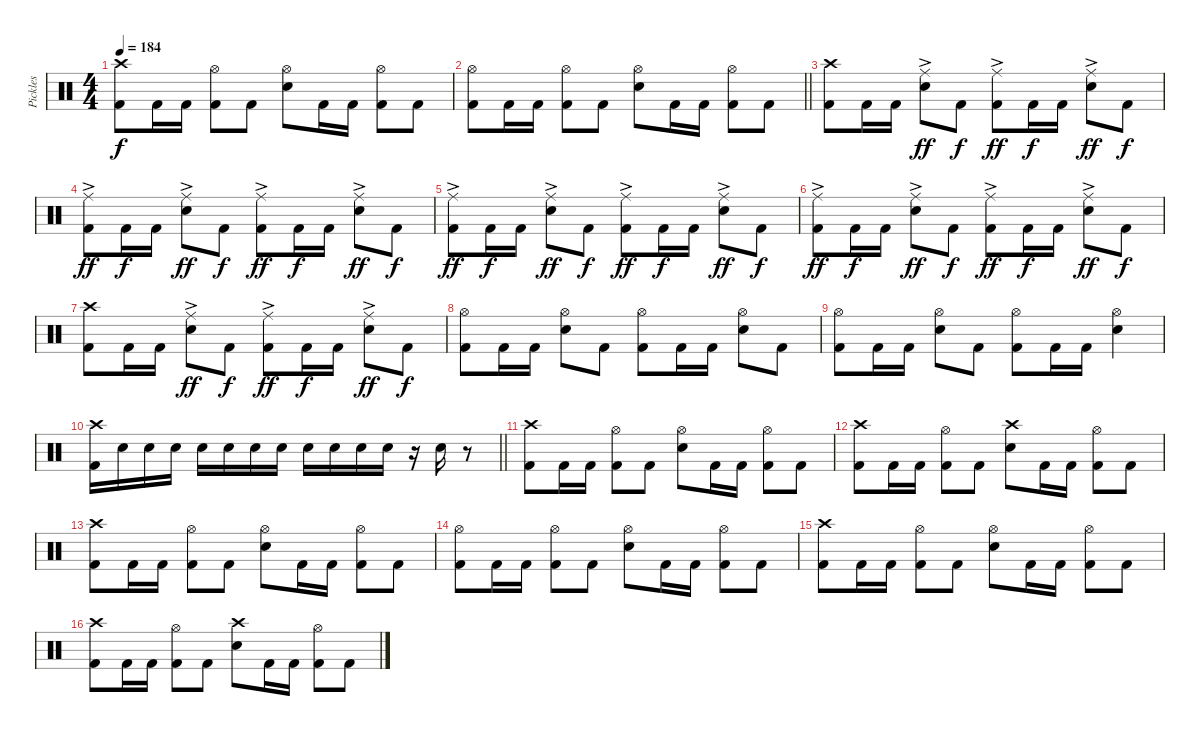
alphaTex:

\track ("Pickles" "Pickles") {instrument percussion}
\staff {score}
\articulation defaults
\ts (4 4)
\tempo 184
\clef neutral
\ks aminor
("Crash high (hit)" "Kick (hit) 2").8{dy f} "Kick (hit) 2".16 "Kick (hit) 2".16 ("Hi-Hat (open)" "Kick (hit) 2").8 "Kick (hit) 2".8 ("Hi-Hat (open)" "Snare (hit) 2").8 "Kick (hit) 2".16 "Kick (hit) 2".16 ("Hi-Hat (open)" "Kick (hit) 2").8 "Kick (hit) 2".8 |
\barLineRight lightlight
("Hi-Hat (open)" "Kick (hit) 2").8 "Kick (hit) 2".16 "Kick (hit) 2".16 ("Hi-Hat (open)" "Kick (hit) 2").8 "Kick (hit) 2".8 ("Hi-Hat (open)" "Snare (hit) 2").8 "Kick (hit) 2".16 "Kick (hit) 2".16 ("Hi-Hat (open)" "Kick (hit) 2").8 "Kick (hit) 2".8 |
("Crash high (hit)" "Kick (hit) 2").8 "Kick (hit) 2".16 "Kick (hit) 2".16 ("Ride (middle)"{ac} "Snare (hit) 2").8{dy ff} "Kick (hit) 2".8{dy f} ("Ride (middle)"{ac} "Kick (hit) 2").8{dy ff} "Kick (hit) 2".16{dy f} "Kick (hit) 2".16 ("Ride (middle)"{ac} "Snare (hit) 2").8{dy ff} "Kick (hit) 2".8{dy f} |
("Ride (middle)"{ac} "Kick (hit) 2").8{dy ff} "Kick (hit) 2".16{dy f} "Kick (hit) 2".16 ("Ride (middle)"{ac} "Snare (hit) 2").8{dy ff} "Kick (hit) 2".8{dy f} ("Ride (middle)"{ac} "Kick (hit) 2").8{dy ff} "Kick (hit) 2".16{dy f} "Kick (hit) 2".16 ("Ride (middle)"{ac} "Snare (hit) 2").8{dy ff} "Kick (hit) 2".8{dy f} |
("Ride (middle)"{ac} "Kick (hit) 2").8{dy ff} "Kick (hit) 2".16{dy f} "Kick (hit) 2".16 ("Ride (middle)"{ac} "Snare (hit) 2").8{dy ff} "Kick (hit) 2".8{dy f} ("Ride (middle)"{ac} "Kick (hit) 2").8{dy ff} "Kick (hit) 2".16{dy f} "Kick (hit) 2".16 ("Ride (middle)"{ac} "Snare (hit) 2").8{dy ff} "Kick (hit) 2".8{dy f} |
("Ride (middle)"{ac} "Kick (hit) 2").8{dy ff} "Kick (hit) 2".16{dy f} "Kick (hit) 2".16 ("Ride (middle)"{ac} "Snare (hit) 2").8{dy ff} "Kick (hit) 2".8{dy f} ("Ride (middle)"{ac} "Kick (hit) 2").8{dy ff} "Kick (hit) 2".16{dy f} "Kick (hit) 2".16 ("Ride (middle)"{ac} "Snare (hit) 2").8{dy ff} "Kick (hit) 2".8{dy f} |
("Crash high (hit)" "Kick (hit) 2").8 "Kick (hit) 2".16 "Kick (hit) 2".16 ("Ride (middle)"{ac} "Snare (hit) 2").8{dy ff} "Kick (hit) 2".8{dy f} ("Ride (middle)"{ac} "Kick (hit) 2").8{dy ff} "Kick (hit) 2".16{dy f} "Kick (hit) 2".16 ("Ride (middle)"{ac} "Snare (hit) 2").8{dy ff} "Kick (hit) 2".8{dy f} |
("Hi-Hat (open)" "Kick (hit) 2").8 "Kick (hit) 2".16 "Kick (hit) 2".16 ("Hi-Hat (open)" "Snare (hit) 2").8 "Kick (hit) 2".8 ("Hi-Hat (open)" "Kick (hit) 2").8 "Kick (hit) 2".16 "Kick (hit) 2".16 ("Hi-Hat (open)" "Snare (hit) 2").8 "Kick (hit) 2".8 |
("Hi-Hat (open)" "Kick (hit) 2").8 "Kick (hit) 2".16 "Kick (hit) 2".16 ("Hi-Hat (open)" "Snare (hit) 2").8 "Kick (hit) 2".8 ("Hi-Hat (open)" "Kick (hit) 2").8 "Kick (hit) 2".16 "Kick (hit) 2".16 ("Hi-Hat (open)" "Snare (hit) 2").4 |
\barLineRight lightlight
("Crash high (hit)" "Kick (hit) 2").16 "Snare (hit) 2".16 "Snare (hit) 2".16 "Snare (hit) 2".16 "Snare (hit) 2".16 "Snare (hit) 2".16 "Snare (hit) 2".16 "Snare (hit) 2".16 "Snare (hit) 2".16 "Snare (hit) 2".16 "Snare (hit) 2".16 "Snare (hit) 2".16 r.16 "Snare (hit) 2".16 r.8 |
("Crash high (hit)" "Kick (hit) 2").8 "Kick (hit) 2".16 "Kick (hit) 2".16 ("Hi-Hat (open)" "Kick (hit) 2").8 "Kick (hit) 2".8 ("Hi-Hat (open)" "Snare (hit) 2").8 "Kick (hit) 2".16 "Kick (hit) 2".16 ("Hi-Hat (open)" "Kick (hit) 2").8 "Kick (hit) 2".8 |
("Crash high (hit)" "Kick (hit) 2").8 "Kick (hit) 2".16 "Kick (hit) 2".16 ("Hi-Hat (open)" "Kick (hit) 2").8 "Kick (hit) 2".8 ("Crash high (hit)" "Snare (hit) 2").8 "Kick (hit) 2".16 "Kick (hit) 2".16 ("Hi-Hat (open)" "Kick (hit) 2").8 "Kick (hit) 2".8 |
("Crash high (hit)" "Kick (hit) 2").8 "Kick (hit) 2".16 "Kick (hit) 2".16 ("Hi-Hat (open)" "Kick (hit) 2").8 "Kick (hit) 2".8 ("Hi-Hat (open)" "Snare (hit) 2").8 "Kick (hit) 2".16 "Kick (hit) 2".16 ("Hi-Hat (open)" "Kick (hit) 2").8 "Kick (hit) 2".8 |
("Hi-Hat (open)" "Kick (hit) 2").8 "Kick (hit) 2".16 "Kick (hit) 2".16 ("Hi-Hat (open)" "Kick (hit) 2").8 "Kick (hit) 2".8 ("Hi-Hat (open)" "Snare (hit) 2").8 "Kick (hit) 2".16 "Kick (hit) 2".16 ("Hi-Hat (open)" "Kick (hit) 2").8 "Kick (hit) 2".8 |
("Crash high (hit)" "Kick (hit) 2").8 "Kick (hit) 2".16 "Kick (hit) 2".16 ("Hi-Hat (open)" "Kick (hit) 2").8 "Kick (hit) 2".8 ("Hi-Hat (open)" "Snare (hit) 2").8 "Kick (hit) 2".16 "Kick (hit) 2".16 ("Hi-Hat (open)" "Kick (hit) 2").8 "Kick (hit) 2".8 |
("Crash high (hit)" "Kick (hit) 2").8 "Kick (hit) 2".16 "Kick (hit) 2".16 ("Hi-Hat (open)" "Kick (hit) 2").8 "Kick (hit) 2".8 ("Crash high (hit)" "Snare (hit) 2").8 "Kick (hit) 2".16 "Kick (hit) 2".16 ("Hi-Hat (open)" "Kick (hit) 2").8 "Kick (hit) 2".8
